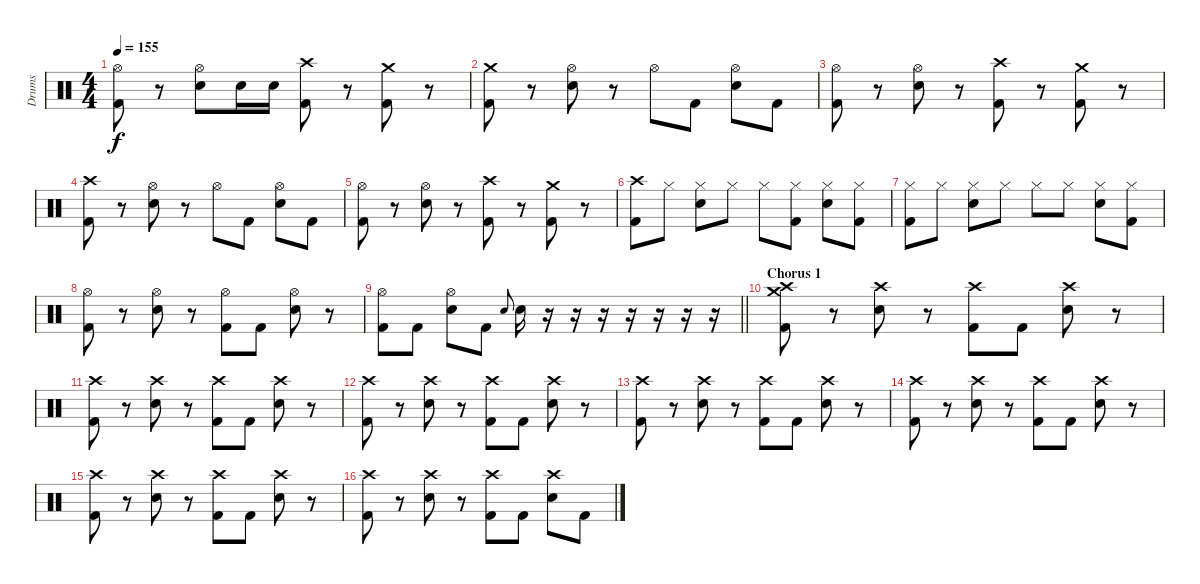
\track ("Drums" "Drums") {instrument percussion}
\staff {score}
\articulation defaults
\ts (4 4)
\tempo 155
\clef neutral
\ks c
("Hi-Hat (open)" "Kick (hit) 2").8{dy f} r.8 ("Hi-Hat (open)" "Electric Snare (hit)").8 "Electric Snare (hit)".16 "Electric Snare (hit)".16 ("Crash high (hit)" "Kick (hit) 2").8 r.8 ("Crash medium (hit)" "Kick (hit) 2").8 r.8 |
("Crash medium (hit)" "Kick (hit) 2").8 r.8 ("Hi-Hat (open)" "Electric Snare (hit)").8 r.8 "Hi-Hat (open)".8 "Kick (hit) 2".8 ("Hi-Hat (open)" "Electric Snare (hit)").8 "Kick (hit) 2".8 |
("Hi-Hat (open)" "Kick (hit) 2").8 r.8 ("Hi-Hat (open)" "Electric Snare (hit)").8 r.8 ("Crash high (hit)" "Kick (hit) 2").8 r.8 ("Crash medium (hit)" "Kick (hit) 2").8 r.8 |
("Crash high (hit)" "Kick (hit) 2").8 r.8 ("Hi-Hat (open)" "Electric Snare (hit)").8 r.8 "Hi-Hat (open)".8 "Kick (hit) 2".8 ("Hi-Hat (open)" "Electric Snare (hit)").8 "Kick (hit) 2".8 |
("Hi-Hat (open)" "Kick (hit) 2").8 r.8 ("Hi-Hat (open)" "Electric Snare (hit)").8 r.8 ("Crash high (hit)" "Kick (hit) 2").8 r.8 ("Crash medium (hit)" "Kick (hit) 2").8 r.8 |
("Crash high (hit)" "Kick (hit) 2").8 "Hi-Hat (closed)".8 ("Hi-Hat (closed)" "Electric Snare (hit)").8 "Hi-Hat (closed)".8 "Hi-Hat (closed)".8 ("Hi-Hat (closed)" "Kick (hit) 2").8 ("Hi-Hat (closed)" "Electric Snare (hit)").8 ("Hi-Hat (closed)" "Kick (hit) 2").8 |
("Hi-Hat (closed)" "Kick (hit) 2").8 "Hi-Hat (closed)".8 ("Hi-Hat (closed)" "Electric Snare (hit)").8 "Hi-Hat (closed)".8 "Hi-Hat (closed)".8 "Hi-Hat (closed)".8 ("Hi-Hat (closed)" "Electric Snare (hit)").8 ("Hi-Hat (closed)" "Kick (hit) 2").8 |
("Hi-Hat (open)" "Kick (hit) 2").8 r.8 ("Hi-Hat (open)" "Electric Snare (hit)").8 r.8 ("Hi-Hat (open)" "Kick (hit) 2").8 "Kick (hit) 2".8 ("Hi-Hat (open)" "Electric Snare (hit)").8 r.8 |
\barLineRight lightlight
("Hi-Hat (open)" "Kick (hit) 2").8 "Kick (hit) 2".8 ("Hi-Hat (open)" "Electric Snare (hit)").8 "Kick (hit) 2".8 "Electric Snare (hit)".8{gr onbeat} "Electric Snare (hit)".16 r.16 r.16 r.16 r.16 r.16 r.16 r.16 |
\section ("" "Chorus 1")
("Crash medium (hit)" "Crash high (hit)" "Kick (hit) 2").8 r.8 ("Crash high (hit)" "Electric Snare (hit)").8 r.8 ("Crash high (hit)" "Kick (hit) 2").8 "Kick (hit) 2".8 ("Crash high (hit)" "Electric Snare (hit)").8 r.8 |
("Crash high (hit)" "Kick (hit) 2").8 r.8 ("Crash high (hit)" "Electric Snare (hit)").8 r.8 ("Crash high (hit)" "Kick (hit) 2").8 "Kick (hit) 2".8 ("Crash high (hit)" "Electric Snare (hit)").8 r.8 |
("Crash high (hit)" "Kick (hit) 2").8 r.8 ("Crash high (hit)" "Electric Snare (hit)").8 r.8 ("Crash high (hit)" "Kick (hit) 2").8 "Kick (hit) 2".8 ("Crash high (hit)" "Electric Snare (hit)").8 r.8 |
("Crash high (hit)" "Kick (hit) 2").8 r.8 ("Crash high (hit)" "Electric Snare (hit)").8 r.8 ("Crash high (hit)" "Kick (hit) 2").8 "Kick (hit) 2".8 ("Crash high (hit)" "Electric Snare (hit)").8 r.8 |
("Crash high (hit)" "Kick (hit) 2").8 r.8 ("Crash high (hit)" "Electric Snare (hit)").8 r.8 ("Crash high (hit)" "Kick (hit) 2").8 "Kick (hit) 2".8 ("Crash high (hit)" "Electric Snare (hit)").8 r.8 |
("Crash high (hit)" "Kick (hit) 2").8 r.8 ("Crash high (hit)" "Electric Snare (hit)").8 r.8 ("Crash high (hit)" "Kick (hit) 2").8 "Kick (hit) 2".8 ("Crash high (hit)" "Electric Snare (hit)").8 r.8 |
("Crash high (hit)" "Kick (hit) 2").8 r.8 ("Crash high (hit)" "Electric Snare (hit)").8 r.8 ("Crash high (hit)" "Kick (hit) 2").8 "Kick (hit) 2".8 ("Crash high (hit)" "Electric Snare (hit)").8 "Kick (hit) 2".8
